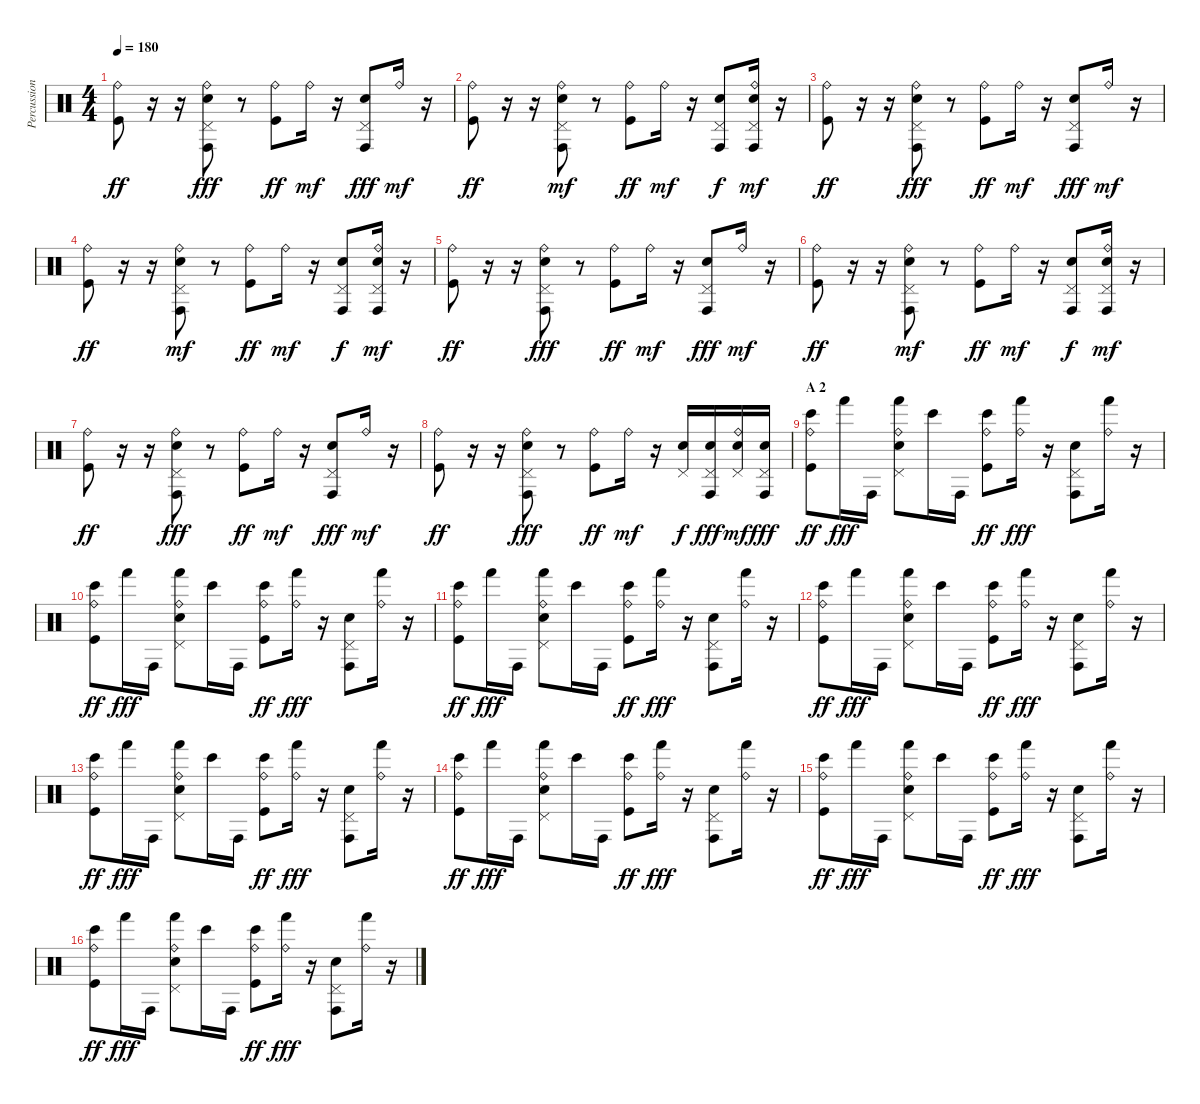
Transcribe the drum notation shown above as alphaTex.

\track ("Percussion" "Percussion") {instrument percussion}
\staff {score}
\articulation defaults
\ts (4 4)
\tempo 180
\clef neutral
\ks c
("Ride (bell)" "Kick (hit)").8{dy ff} r.16 r.16 ("Ride (bell)" "Pedal Hi-Hat (hit)" "Conga high (hit)" "Electric Snare (hit)").8{dy fff} r.8 ("Ride (bell)" "Kick (hit)").8{dy ff} "Ride (bell)".16{dy mf} r.16 ("Pedal Hi-Hat (hit)" "Conga high (hit)" "Electric Snare (hit)").8{dy fff} "Ride (bell)".16{dy mf} r.16 |
("Ride (bell)" "Kick (hit)").8{dy ff} r.16 r.16 ("Ride (bell)" "Pedal Hi-Hat (hit)" "Conga high (hit)" "Electric Snare (hit)").8{dy mf} r.8 ("Ride (bell)" "Kick (hit)").8{dy ff} "Ride (bell)".16{dy mf} r.16 ("Pedal Hi-Hat (hit)" "Conga high (hit)" "Electric Snare (hit)").8{dy f} ("Ride (bell)" "Pedal Hi-Hat (hit)" "Conga high (hit)" "Electric Snare (hit)").16{dy mf} r.16 |
("Ride (bell)" "Kick (hit)").8{dy ff} r.16 r.16 ("Ride (bell)" "Pedal Hi-Hat (hit)" "Conga high (hit)" "Electric Snare (hit)").8{dy fff} r.8 ("Ride (bell)" "Kick (hit)").8{dy ff} "Ride (bell)".16{dy mf} r.16 ("Pedal Hi-Hat (hit)" "Conga high (hit)" "Electric Snare (hit)").8{dy fff} "Ride (bell)".16{dy mf} r.16 |
("Ride (bell)" "Kick (hit)").8{dy ff} r.16 r.16 ("Ride (bell)" "Pedal Hi-Hat (hit)" "Conga high (hit)" "Electric Snare (hit)").8{dy mf} r.8 ("Ride (bell)" "Kick (hit)").8{dy ff} "Ride (bell)".16{dy mf} r.16 ("Pedal Hi-Hat (hit)" "Conga high (hit)" "Electric Snare (hit)").8{dy f} ("Ride (bell)" "Pedal Hi-Hat (hit)" "Conga high (hit)" "Electric Snare (hit)").16{dy mf} r.16 |
("Ride (bell)" "Kick (hit)").8{dy ff} r.16 r.16 ("Ride (bell)" "Pedal Hi-Hat (hit)" "Conga high (hit)" "Electric Snare (hit)").8{dy fff} r.8 ("Ride (bell)" "Kick (hit)").8{dy ff} "Ride (bell)".16{dy mf} r.16 ("Pedal Hi-Hat (hit)" "Conga high (hit)" "Electric Snare (hit)").8{dy fff} "Ride (bell)".16{dy mf} r.16 |
("Ride (bell)" "Kick (hit)").8{dy ff} r.16 r.16 ("Ride (bell)" "Pedal Hi-Hat (hit)" "Conga high (hit)" "Electric Snare (hit)").8{dy mf} r.8 ("Ride (bell)" "Kick (hit)").8{dy ff} "Ride (bell)".16{dy mf} r.16 ("Pedal Hi-Hat (hit)" "Conga high (hit)" "Electric Snare (hit)").8{dy f} ("Ride (bell)" "Pedal Hi-Hat (hit)" "Conga high (hit)" "Electric Snare (hit)").16{dy mf} r.16 |
("Ride (bell)" "Kick (hit)").8{dy ff} r.16 r.16 ("Ride (bell)" "Pedal Hi-Hat (hit)" "Conga high (hit)" "Electric Snare (hit)").8{dy fff} r.8 ("Ride (bell)" "Kick (hit)").8{dy ff} "Ride (bell)".16{dy mf} r.16 ("Pedal Hi-Hat (hit)" "Conga high (hit)" "Electric Snare (hit)").8{dy fff} "Ride (bell)".16{dy mf} r.16 |
("Ride (bell)" "Kick (hit)").8{dy ff} r.16 r.16 ("Ride (bell)" "Pedal Hi-Hat (hit)" "Conga high (hit)" "Electric Snare (hit)").8{dy fff} r.8 ("Ride (bell)" "Kick (hit)").8{dy ff} "Ride (bell)".16{dy mf} r.16 ("Pedal Hi-Hat (hit)" "Electric Snare (hit)").16{dy f} ("Pedal Hi-Hat (hit)" "Conga high (hit)" "Electric Snare (hit)").16{dy fff} ("Ride (bell)" "Pedal Hi-Hat (hit)" "Electric Snare (hit)").16{dy mf} ("Pedal Hi-Hat (hit)" "Conga high (hit)" "Electric Snare (hit)").16{dy fff} |
\section ("" "A 2")
("Ride (bell)" "Bongo High (hit)" "Kick (hit)").8{dy ff} "Hand (hit)".16{dy fff} "Conga high (hit)".16 ("Ride (bell)" "Pedal Hi-Hat (hit)" "Hand (hit)" "Electric Snare (hit)").8 "Bongo High (hit)".16 "Conga high (hit)".16 ("Ride (bell)" "Bongo High (hit)" "Kick (hit)").8{dy ff} ("Ride (bell)" "Hand (hit)").16{dy fff} r.16 ("Pedal Hi-Hat (hit)" "Conga high (hit)" "Electric Snare (hit)").8 ("Ride (bell)" "Hand (hit)").16 r.16 |
("Ride (bell)" "Bongo High (hit)" "Kick (hit)").8{dy ff} "Hand (hit)".16{dy fff} "Conga high (hit)".16 ("Ride (bell)" "Pedal Hi-Hat (hit)" "Hand (hit)" "Electric Snare (hit)").8 "Bongo High (hit)".16 "Conga high (hit)".16 ("Ride (bell)" "Bongo High (hit)" "Kick (hit)").8{dy ff} ("Ride (bell)" "Hand (hit)").16{dy fff} r.16 ("Pedal Hi-Hat (hit)" "Conga high (hit)" "Electric Snare (hit)").8 ("Ride (bell)" "Hand (hit)").16 r.16 |
("Ride (bell)" "Bongo High (hit)" "Kick (hit)").8{dy ff} "Hand (hit)".16{dy fff} "Conga high (hit)".16 ("Ride (bell)" "Pedal Hi-Hat (hit)" "Hand (hit)" "Electric Snare (hit)").8 "Bongo High (hit)".16 "Conga high (hit)".16 ("Ride (bell)" "Bongo High (hit)" "Kick (hit)").8{dy ff} ("Ride (bell)" "Hand (hit)").16{dy fff} r.16 ("Pedal Hi-Hat (hit)" "Conga high (hit)" "Electric Snare (hit)").8 ("Ride (bell)" "Hand (hit)").16 r.16 |
("Ride (bell)" "Bongo High (hit)" "Kick (hit)").8{dy ff} "Hand (hit)".16{dy fff} "Conga high (hit)".16 ("Ride (bell)" "Pedal Hi-Hat (hit)" "Hand (hit)" "Electric Snare (hit)").8 "Bongo High (hit)".16 "Conga high (hit)".16 ("Ride (bell)" "Bongo High (hit)" "Kick (hit)").8{dy ff} ("Ride (bell)" "Hand (hit)").16{dy fff} r.16 ("Pedal Hi-Hat (hit)" "Conga high (hit)" "Electric Snare (hit)").8 ("Ride (bell)" "Hand (hit)").16 r.16 |
("Ride (bell)" "Bongo High (hit)" "Kick (hit)").8{dy ff} "Hand (hit)".16{dy fff} "Conga high (hit)".16 ("Ride (bell)" "Pedal Hi-Hat (hit)" "Hand (hit)" "Electric Snare (hit)").8 "Bongo High (hit)".16 "Conga high (hit)".16 ("Ride (bell)" "Bongo High (hit)" "Kick (hit)").8{dy ff} ("Ride (bell)" "Hand (hit)").16{dy fff} r.16 ("Pedal Hi-Hat (hit)" "Conga high (hit)" "Electric Snare (hit)").8 ("Ride (bell)" "Hand (hit)").16 r.16 |
("Ride (bell)" "Bongo High (hit)" "Kick (hit)").8{dy ff} "Hand (hit)".16{dy fff} "Conga high (hit)".16 ("Ride (bell)" "Pedal Hi-Hat (hit)" "Hand (hit)" "Electric Snare (hit)").8 "Bongo High (hit)".16 "Conga high (hit)".16 ("Ride (bell)" "Bongo High (hit)" "Kick (hit)").8{dy ff} ("Ride (bell)" "Hand (hit)").16{dy fff} r.16 ("Pedal Hi-Hat (hit)" "Conga high (hit)" "Electric Snare (hit)").8 ("Ride (bell)" "Hand (hit)").16 r.16 |
("Ride (bell)" "Bongo High (hit)" "Kick (hit)").8{dy ff} "Hand (hit)".16{dy fff} "Conga high (hit)".16 ("Ride (bell)" "Pedal Hi-Hat (hit)" "Hand (hit)" "Electric Snare (hit)").8 "Bongo High (hit)".16 "Conga high (hit)".16 ("Ride (bell)" "Bongo High (hit)" "Kick (hit)").8{dy ff} ("Ride (bell)" "Hand (hit)").16{dy fff} r.16 ("Pedal Hi-Hat (hit)" "Conga high (hit)" "Electric Snare (hit)").8 ("Ride (bell)" "Hand (hit)").16 r.16 |
("Ride (bell)" "Bongo High (hit)" "Kick (hit)").8{dy ff} "Hand (hit)".16{dy fff} "Conga high (hit)".16 ("Ride (bell)" "Pedal Hi-Hat (hit)" "Hand (hit)" "Electric Snare (hit)").8 "Bongo High (hit)".16 "Conga high (hit)".16 ("Ride (bell)" "Bongo High (hit)" "Kick (hit)").8{dy ff} ("Ride (bell)" "Hand (hit)").16{dy fff} r.16 ("Pedal Hi-Hat (hit)" "Conga high (hit)" "Electric Snare (hit)").8 ("Ride (bell)" "Hand (hit)").16 r.16
